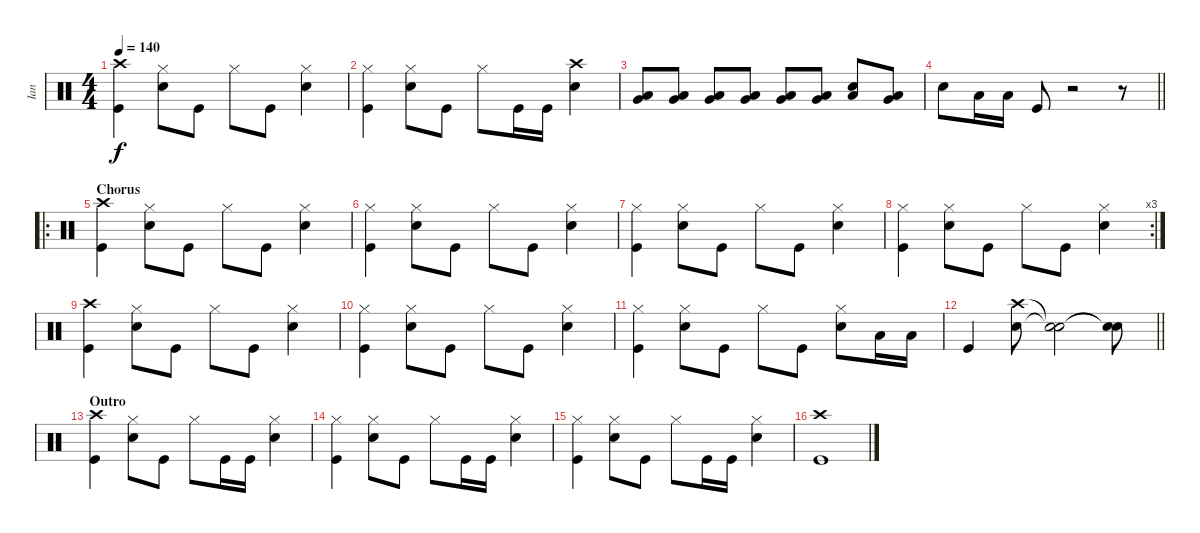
\track ("Ian" "Ian") {instrument percussion}
\staff {score}
\articulation defaults
\ts (4 4)
\tempo 140
\clef neutral
\ks c
("Crash high (hit)" "Kick (hit)").4{dy f} ("Hi-Hat (closed)" "Snare (hit) 2").8 "Kick (hit)".8 "Hi-Hat (closed)".8 "Kick (hit)".8 ("Hi-Hat (closed)" "Snare (hit) 2").4 |
("Hi-Hat (closed)" "Kick (hit)").4 ("Hi-Hat (closed)" "Snare (hit) 2").8 "Kick (hit)".8 "Hi-Hat (closed)".8 "Kick (hit)".16 "Kick (hit)".16 ("Crash high (hit)" "Snare (hit) 2").4 |
("Low Tom (hit)" "Very Low Tom (hit)").8 ("Low Tom (hit)" "Very Low Tom (hit)").8 ("Low Tom (hit)" "Very Low Tom (hit)").8 ("Low Tom (hit)" "Very Low Tom (hit)").8 ("Low Tom (hit)" "Very Low Tom (hit)").8 ("Low Tom (hit)" "Very Low Tom (hit)").8 ("Low Tom (hit)" "Metronome (bell)").8 ("Low Tom (hit)" "Very Low Tom (hit)").8 |
\barLineRight lightlight "Snare (hit) 2".8 "Low Tom (hit)".16 "Low Tom (hit)".16 "Kick (hit)".8
r.2 r.8 |
\ro
\section ("" "Chorus")
("Crash high (hit)" "Kick (hit)").4 ("Hi-Hat (closed)" "Snare (hit) 2").8 "Kick (hit)".8 "Hi-Hat (closed)".8 "Kick (hit)".8 ("Hi-Hat (closed)" "Snare (hit) 2").4 |
("Hi-Hat (closed)" "Kick (hit)").4 ("Hi-Hat (closed)" "Snare (hit) 2").8 "Kick (hit)".8 "Hi-Hat (closed)".8 "Kick (hit)".8 ("Hi-Hat (closed)" "Snare (hit) 2").4 |
("Hi-Hat (closed)" "Kick (hit)").4 ("Hi-Hat (closed)" "Snare (hit) 2").8 "Kick (hit)".8 "Hi-Hat (closed)".8 "Kick (hit)".8 ("Hi-Hat (closed)" "Snare (hit) 2").4 |
\rc 3
("Hi-Hat (closed)" "Kick (hit)").4 ("Hi-Hat (closed)" "Snare (hit) 2").8 "Kick (hit)".8 "Hi-Hat (closed)".8 "Kick (hit)".8 ("Hi-Hat (closed)" "Snare (hit) 2").4 |
("Crash high (hit)" "Kick (hit)").4 ("Hi-Hat (closed)" "Snare (hit) 2").8 "Kick (hit)".8 "Hi-Hat (closed)".8 "Kick (hit)".8 ("Hi-Hat (closed)" "Snare (hit) 2").4 |
("Hi-Hat (closed)" "Kick (hit)").4 ("Hi-Hat (closed)" "Snare (hit) 2").8 "Kick (hit)".8 "Hi-Hat (closed)".8 "Kick (hit)".8 ("Hi-Hat (closed)" "Snare (hit) 2").4 |
("Hi-Hat (closed)" "Kick (hit)").4 ("Hi-Hat (closed)" "Snare (hit) 2").8 "Kick (hit)".8 "Hi-Hat (closed)".8 "Kick (hit)".8 ("Hi-Hat (closed)" "Snare (hit) 2").8 "Low Tom (hit)".16 "Low Tom (hit)".16 |
\barLineRight lightlight "Kick (hit)".4
("Crash high (hit)" "Snare (hit) 2").8 ("Snare (hit)"{t} "Snare (hit)"{t}).2 ("Snare (hit)"{t} "Snare (hit)"{t}).8 |
\section ("" "Outro")
("Crash high (hit)" "Kick (hit)").4 ("Hi-Hat (closed)" "Snare (hit) 2").8 "Kick (hit)".8 "Hi-Hat (closed)".8 "Kick (hit)".16 "Kick (hit)".16 ("Hi-Hat (closed)" "Snare (hit) 2").4 |
("Hi-Hat (closed)" "Kick (hit)").4 ("Hi-Hat (closed)" "Snare (hit) 2").8 "Kick (hit)".8 "Hi-Hat (closed)".8 "Kick (hit)".16 "Kick (hit)".16 ("Hi-Hat (closed)" "Snare (hit) 2").4 |
("Hi-Hat (closed)" "Kick (hit)").4 ("Hi-Hat (closed)" "Snare (hit) 2").8 "Kick (hit)".8 "Hi-Hat (closed)".8 "Kick (hit)".16 "Kick (hit)".16 ("Hi-Hat (closed)" "Snare (hit) 2").4 |
("Crash high (hit)" "Kick (hit)").1
